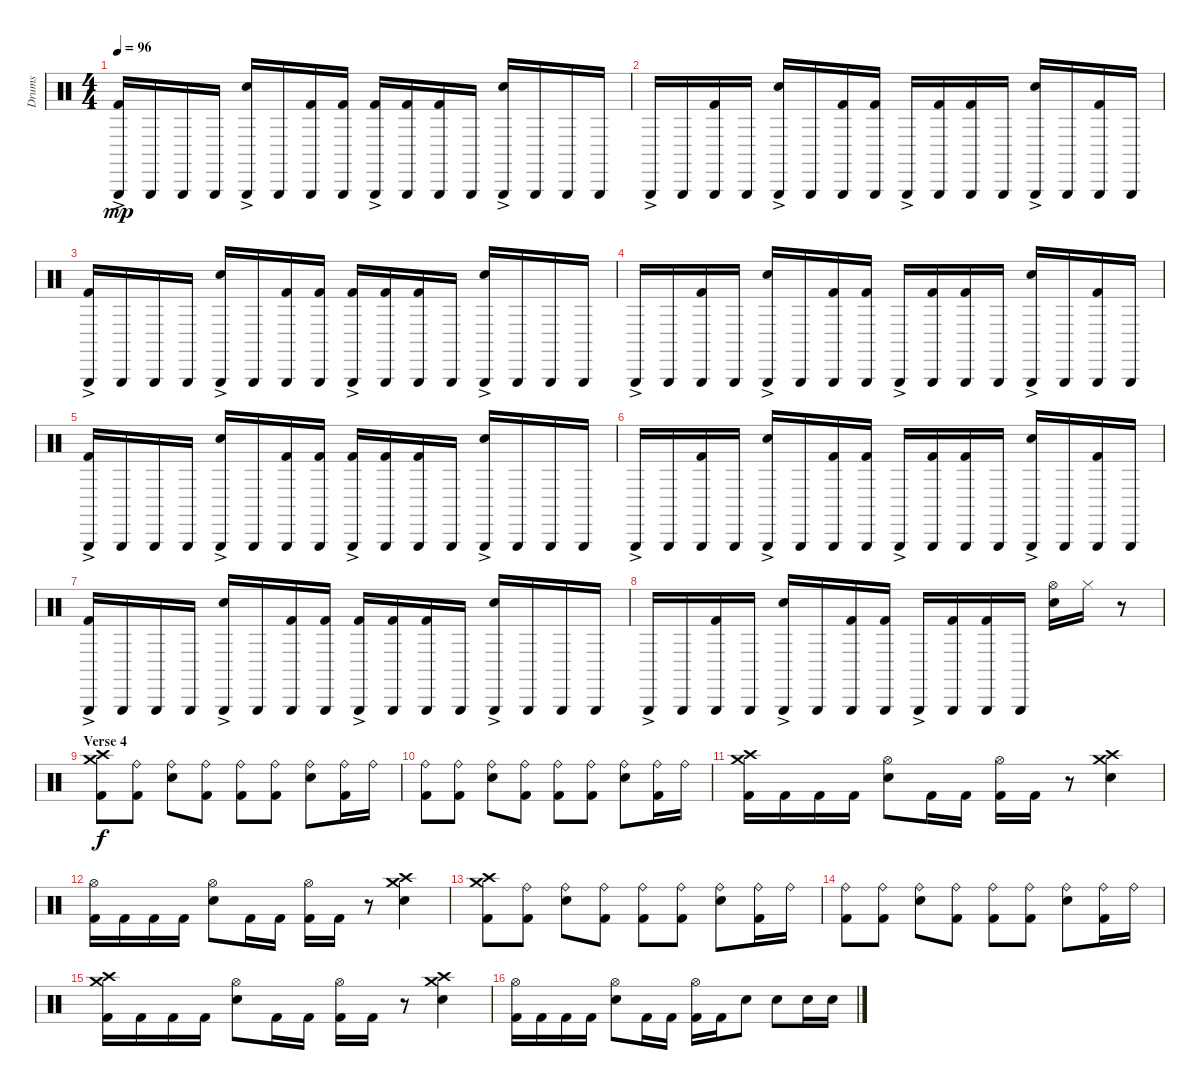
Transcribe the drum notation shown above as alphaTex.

\track ("Drums" "Drums") {instrument percussion}
\staff {score}
\articulation defaults
\ts (4 4)
\tempo 96
\clef neutral
\ks c
("Triangle (hit)"{ac} "Kick (hit) 2").16{dy mp} "Triangle (hit)".16 "Triangle (hit)".16 "Triangle (hit)".16 ("Triangle (hit)"{ac} "Electric Snare (hit)").16 "Triangle (hit)".16 ("Triangle (hit)" "Kick (hit) 2").16 ("Triangle (hit)" "Kick (hit) 2").16 ("Triangle (hit)"{ac} "Kick (hit) 2").16 ("Triangle (hit)" "Kick (hit) 2").16 ("Triangle (hit)" "Kick (hit) 2").16 "Triangle (hit)".16 ("Triangle (hit)"{ac} "Electric Snare (hit)").16 "Triangle (hit)".16 "Triangle (hit)".16 "Triangle (hit)".16 |
"Triangle (hit)"{ac}.16 "Triangle (hit)".16 ("Triangle (hit)" "Kick (hit) 2").16 "Triangle (hit)".16 ("Triangle (hit)"{ac} "Electric Snare (hit)").16 "Triangle (hit)".16 ("Triangle (hit)" "Kick (hit) 2").16 ("Triangle (hit)" "Kick (hit) 2").16 "Triangle (hit)"{ac}.16 ("Triangle (hit)" "Kick (hit) 2").16 ("Triangle (hit)" "Kick (hit) 2").16 "Triangle (hit)".16 ("Triangle (hit)"{ac} "Electric Snare (hit)").16 "Triangle (hit)".16 ("Triangle (hit)" "Kick (hit) 2").16 "Triangle (hit)".16 |
("Triangle (hit)"{ac} "Kick (hit) 2").16 "Triangle (hit)".16 "Triangle (hit)".16 "Triangle (hit)".16 ("Triangle (hit)"{ac} "Electric Snare (hit)").16 "Triangle (hit)".16 ("Triangle (hit)" "Kick (hit) 2").16 ("Triangle (hit)" "Kick (hit) 2").16 ("Triangle (hit)"{ac} "Kick (hit) 2").16 ("Triangle (hit)" "Kick (hit) 2").16 ("Triangle (hit)" "Kick (hit) 2").16 "Triangle (hit)".16 ("Triangle (hit)"{ac} "Electric Snare (hit)").16 "Triangle (hit)".16 "Triangle (hit)".16 "Triangle (hit)".16 |
"Triangle (hit)"{ac}.16 "Triangle (hit)".16 ("Triangle (hit)" "Kick (hit) 2").16 "Triangle (hit)".16 ("Triangle (hit)"{ac} "Electric Snare (hit)").16 "Triangle (hit)".16 ("Triangle (hit)" "Kick (hit) 2").16 ("Triangle (hit)" "Kick (hit) 2").16 "Triangle (hit)"{ac}.16 ("Triangle (hit)" "Kick (hit) 2").16 ("Triangle (hit)" "Kick (hit) 2").16 "Triangle (hit)".16 ("Triangle (hit)"{ac} "Electric Snare (hit)").16 "Triangle (hit)".16 ("Triangle (hit)" "Kick (hit) 2").16 "Triangle (hit)".16 |
("Triangle (hit)"{ac} "Kick (hit) 2").16 "Triangle (hit)".16 "Triangle (hit)".16 "Triangle (hit)".16 ("Triangle (hit)"{ac} "Electric Snare (hit)").16 "Triangle (hit)".16 ("Triangle (hit)" "Kick (hit) 2").16 ("Triangle (hit)" "Kick (hit) 2").16 ("Triangle (hit)"{ac} "Kick (hit) 2").16 ("Triangle (hit)" "Kick (hit) 2").16 ("Triangle (hit)" "Kick (hit) 2").16 "Triangle (hit)".16 ("Triangle (hit)"{ac} "Electric Snare (hit)").16 "Triangle (hit)".16 "Triangle (hit)".16 "Triangle (hit)".16 |
"Triangle (hit)"{ac}.16 "Triangle (hit)".16 ("Triangle (hit)" "Kick (hit) 2").16 "Triangle (hit)".16 ("Triangle (hit)"{ac} "Electric Snare (hit)").16 "Triangle (hit)".16 ("Triangle (hit)" "Kick (hit) 2").16 ("Triangle (hit)" "Kick (hit) 2").16 "Triangle (hit)"{ac}.16 ("Triangle (hit)" "Kick (hit) 2").16 ("Triangle (hit)" "Kick (hit) 2").16 "Triangle (hit)".16 ("Triangle (hit)"{ac} "Electric Snare (hit)").16 "Triangle (hit)".16 ("Triangle (hit)" "Kick (hit) 2").16 "Triangle (hit)".16 |
("Triangle (hit)"{ac} "Kick (hit) 2").16 "Triangle (hit)".16 "Triangle (hit)".16 "Triangle (hit)".16 ("Triangle (hit)"{ac} "Electric Snare (hit)").16 "Triangle (hit)".16 ("Triangle (hit)" "Kick (hit) 2").16 ("Triangle (hit)" "Kick (hit) 2").16 ("Triangle (hit)"{ac} "Kick (hit) 2").16 ("Triangle (hit)" "Kick (hit) 2").16 ("Triangle (hit)" "Kick (hit) 2").16 "Triangle (hit)".16 ("Triangle (hit)"{ac} "Electric Snare (hit)").16 "Triangle (hit)".16 "Triangle (hit)".16 "Triangle (hit)".16 |
"Triangle (hit)"{ac}.16 "Triangle (hit)".16 ("Triangle (hit)" "Kick (hit) 2").16 "Triangle (hit)".16 ("Triangle (hit)"{ac} "Electric Snare (hit)").16 "Triangle (hit)".16 ("Triangle (hit)" "Kick (hit) 2").16 ("Triangle (hit)" "Kick (hit) 2").16 "Triangle (hit)"{ac}.16 ("Triangle (hit)" "Kick (hit) 2").16 ("Triangle (hit)" "Kick (hit) 2").16 "Triangle (hit)".16 ("Hi-Hat (open)" "Electric Snare (hit)").16 "Hi-Hat (closed)".16 r.8 |
\section ("" "Verse 4")
("Crash high (hit)" "Crash medium (hit)" "Kick (hit) 2").8{dy f} ("Ride (bell)" "Kick (hit) 2").8 ("Ride (bell)" "Electric Snare (hit)").8 ("Ride (bell)" "Kick (hit) 2").8 ("Ride (bell)" "Kick (hit) 2").8 ("Ride (bell)" "Kick (hit) 2").8 ("Ride (bell)" "Electric Snare (hit)").8 ("Ride (bell)" "Kick (hit) 2").16 "Ride (bell)".16 |
("Ride (bell)" "Kick (hit) 2").8 ("Ride (bell)" "Kick (hit) 2").8 ("Ride (bell)" "Electric Snare (hit)").8 ("Ride (bell)" "Kick (hit) 2").8 ("Ride (bell)" "Kick (hit) 2").8 ("Ride (bell)" "Kick (hit) 2").8 ("Ride (bell)" "Electric Snare (hit)").8 ("Ride (bell)" "Kick (hit) 2").16 "Ride (bell)".16 |
("Crash high (hit)" "Crash medium (hit)" "Kick (hit) 2").16 "Kick (hit) 2".16 "Kick (hit) 2".16 "Kick (hit) 2".16 ("Hi-Hat (open)" "Electric Snare (hit)").8 "Kick (hit) 2".16 "Kick (hit) 2".16 ("Hi-Hat (open)" "Kick (hit) 2").16 "Kick (hit) 2".16 r.8 ("Crash high (hit)" "Crash medium (hit)" "Electric Snare (hit)").4 |
("Hi-Hat (open)" "Kick (hit) 2").16 "Kick (hit) 2".16 "Kick (hit) 2".16 "Kick (hit) 2".16 ("Hi-Hat (open)" "Electric Snare (hit)").8 "Kick (hit) 2".16 "Kick (hit) 2".16 ("Hi-Hat (open)" "Kick (hit) 2").16 "Kick (hit) 2".16 r.8 ("Crash high (hit)" "Crash medium (hit)" "Electric Snare (hit)").4 |
("Crash high (hit)" "Crash medium (hit)" "Kick (hit) 2").8 ("Ride (bell)" "Kick (hit) 2").8 ("Ride (bell)" "Electric Snare (hit)").8 ("Ride (bell)" "Kick (hit) 2").8 ("Ride (bell)" "Kick (hit) 2").8 ("Ride (bell)" "Kick (hit) 2").8 ("Ride (bell)" "Electric Snare (hit)").8 ("Ride (bell)" "Kick (hit) 2").16 "Ride (bell)".16 |
("Ride (bell)" "Kick (hit) 2").8 ("Ride (bell)" "Kick (hit) 2").8 ("Ride (bell)" "Electric Snare (hit)").8 ("Ride (bell)" "Kick (hit) 2").8 ("Ride (bell)" "Kick (hit) 2").8 ("Ride (bell)" "Kick (hit) 2").8 ("Ride (bell)" "Electric Snare (hit)").8 ("Ride (bell)" "Kick (hit) 2").16 "Ride (bell)".16 |
("Crash high (hit)" "Crash medium (hit)" "Kick (hit) 2").16 "Kick (hit) 2".16 "Kick (hit) 2".16 "Kick (hit) 2".16 ("Hi-Hat (open)" "Electric Snare (hit)").8 "Kick (hit) 2".16 "Kick (hit) 2".16 ("Hi-Hat (open)" "Kick (hit) 2").16 "Kick (hit) 2".16 r.8 ("Crash high (hit)" "Crash medium (hit)" "Electric Snare (hit)").4 |
("Hi-Hat (open)" "Kick (hit) 2").16 "Kick (hit) 2".16 "Kick (hit) 2".16 "Kick (hit) 2".16 ("Hi-Hat (open)" "Electric Snare (hit)").8 "Kick (hit) 2".16 "Kick (hit) 2".16 ("Hi-Hat (open)" "Kick (hit) 2").16 "Kick (hit) 2".16 "Electric Snare (hit)".8 "Electric Snare (hit)".8 "Electric Snare (hit)".16 "Electric Snare (hit)".16
